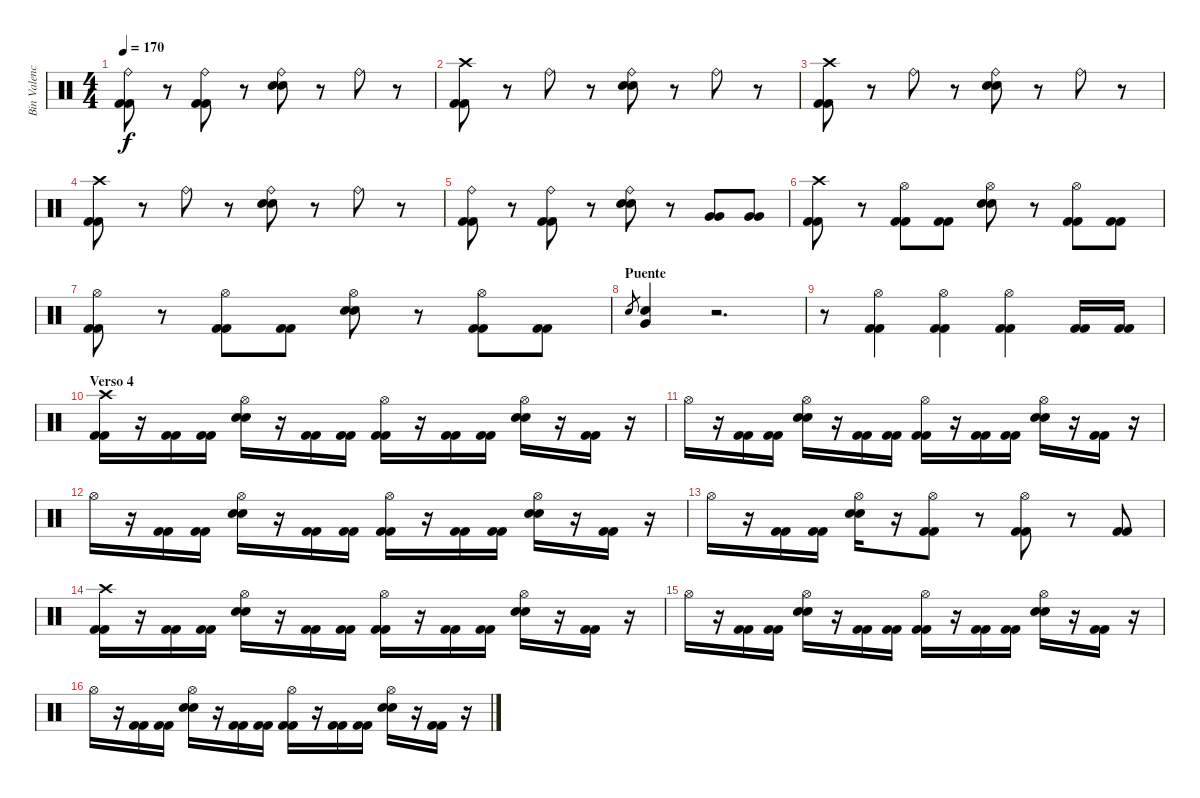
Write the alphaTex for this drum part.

\track ("Bin Valencia (Bateria)" "Bin Valenc") {instrument percussion}
\staff {score}
\articulation defaults
\ts (4 4)
\tempo 170
\clef neutral
\ks c
("Ride (bell)" "Kick (hit) 2" "Kick (hit) 2").8{dy f} r.8 ("Ride (bell)" "Kick (hit) 2" "Kick (hit) 2").8 r.8 ("Ride (bell)" "Snare (hit) 2" "Snare (hit) 2").8 r.8 "Ride (bell)".8 r.8 |
("Crash high (hit)" "Kick (hit) 2" "Kick (hit) 2").8 r.8 "Ride (bell)".8 r.8 ("Ride (bell)" "Snare (hit) 2" "Snare (hit) 2").8 r.8 "Ride (bell)".8 r.8 |
("Crash high (hit)" "Kick (hit) 2" "Kick (hit) 2").8 r.8 "Ride (bell)".8 r.8 ("Ride (bell)" "Snare (hit) 2" "Snare (hit) 2").8 r.8 "Ride (bell)".8 r.8 |
("Crash high (hit)" "Kick (hit) 2" "Kick (hit) 2").8 r.8 "Ride (bell)".8 r.8 ("Ride (bell)" "Snare (hit) 2" "Snare (hit) 2").8 r.8 "Ride (bell)".8 r.8 |
("Ride (bell)" "Kick (hit) 2" "Kick (hit) 2").8 r.8 ("Ride (bell)" "Kick (hit) 2" "Kick (hit) 2").8 r.8 ("Ride (bell)" "Snare (hit) 2" "Snare (hit) 2").8 r.8 ("Very Low Tom (hit)" "Very Low Tom (hit)").8 ("Very Low Tom (hit)" "Very Low Tom (hit)").8 |
("Crash high (hit)" "Kick (hit) 2" "Kick (hit) 2").8 r.8 ("Hi-Hat (open)" "Kick (hit) 2" "Kick (hit) 2").8 ("Kick (hit) 2" "Kick (hit) 2").8 ("Hi-Hat (open)" "Snare (hit) 2" "Snare (hit) 2").8 r.8 ("Hi-Hat (open)" "Kick (hit) 2" "Kick (hit) 2").8 ("Kick (hit) 2" "Kick (hit) 2").8 |
("Hi-Hat (open)" "Kick (hit) 2" "Kick (hit) 2").8 r.8 ("Hi-Hat (open)" "Kick (hit) 2" "Kick (hit) 2").8 ("Kick (hit) 2" "Kick (hit) 2").8 ("Hi-Hat (open)" "Snare (hit) 2" "Snare (hit) 2").8 r.8 ("Hi-Hat (open)" "Kick (hit) 2" "Kick (hit) 2").8 ("Kick (hit) 2" "Kick (hit) 2").8 |
\section ("" "Puente")
"Snare (hit) 2".8{gr} ("Snare (hit) 2" "Very Low Tom (hit)").4 r.2{d} |
r.8 ("Hi-Hat (open)" "Kick (hit) 2" "Kick (hit) 2").4 ("Hi-Hat (open)" "Kick (hit) 2" "Kick (hit) 2").4 ("Hi-Hat (open)" "Kick (hit) 2" "Kick (hit) 2").4 ("Kick (hit) 2" "Kick (hit) 2").16 ("Kick (hit) 2" "Kick (hit) 2").16 |
\section ("" "Verso 4")
("Crash high (hit)" "Kick (hit) 2" "Kick (hit) 2").16 r.16 ("Kick (hit) 2" "Kick (hit) 2").16 ("Kick (hit) 2" "Kick (hit) 2").16 ("Hi-Hat (open)" "Snare (hit) 2" "Snare (hit) 2").16 r.16 ("Kick (hit) 2" "Kick (hit) 2").16 ("Kick (hit) 2" "Kick (hit) 2").16 ("Hi-Hat (open)" "Kick (hit) 2" "Kick (hit) 2").16 r.16 ("Kick (hit) 2" "Kick (hit) 2").16 ("Kick (hit) 2" "Kick (hit) 2").16 ("Hi-Hat (open)" "Snare (hit) 2" "Snare (hit) 2").16 r.16 ("Kick (hit) 2" "Kick (hit) 2").16 r.16 |
"Hi-Hat (open)".16 r.16 ("Kick (hit) 2" "Kick (hit) 2").16 ("Kick (hit) 2" "Kick (hit) 2").16 ("Hi-Hat (open)" "Snare (hit) 2" "Snare (hit) 2").16 r.16 ("Kick (hit) 2" "Kick (hit) 2").16 ("Kick (hit) 2" "Kick (hit) 2").16 ("Hi-Hat (open)" "Kick (hit) 2" "Kick (hit) 2").16 r.16 ("Kick (hit) 2" "Kick (hit) 2").16 ("Kick (hit) 2" "Kick (hit) 2").16 ("Hi-Hat (open)" "Snare (hit) 2" "Snare (hit) 2").16 r.16 ("Kick (hit) 2" "Kick (hit) 2").16 r.16 |
"Hi-Hat (open)".16 r.16 ("Kick (hit) 2" "Kick (hit) 2").16 ("Kick (hit) 2" "Kick (hit) 2").16 ("Hi-Hat (open)" "Snare (hit) 2" "Snare (hit) 2").16 r.16 ("Kick (hit) 2" "Kick (hit) 2").16 ("Kick (hit) 2" "Kick (hit) 2").16 ("Hi-Hat (open)" "Kick (hit) 2" "Kick (hit) 2").16 r.16 ("Kick (hit) 2" "Kick (hit) 2").16 ("Kick (hit) 2" "Kick (hit) 2").16 ("Hi-Hat (open)" "Snare (hit) 2" "Snare (hit) 2").16 r.16 ("Kick (hit) 2" "Kick (hit) 2").16 r.16 |
"Hi-Hat (open)".16 r.16 ("Kick (hit) 2" "Kick (hit) 2").16 ("Kick (hit) 2" "Kick (hit) 2").16 ("Hi-Hat (open)" "Snare (hit) 2" "Snare (hit) 2").16 r.16 ("Hi-Hat (open)" "Kick (hit) 2" "Kick (hit) 2").8 r.8 ("Hi-Hat (open)" "Kick (hit) 2" "Kick (hit) 2").8 r.8 ("Kick (hit) 2" "Kick (hit) 2").8 |
("Crash high (hit)" "Kick (hit) 2" "Kick (hit) 2").16 r.16 ("Kick (hit) 2" "Kick (hit) 2").16 ("Kick (hit) 2" "Kick (hit) 2").16 ("Hi-Hat (open)" "Snare (hit) 2" "Snare (hit) 2").16 r.16 ("Kick (hit) 2" "Kick (hit) 2").16 ("Kick (hit) 2" "Kick (hit) 2").16 ("Hi-Hat (open)" "Kick (hit) 2" "Kick (hit) 2").16 r.16 ("Kick (hit) 2" "Kick (hit) 2").16 ("Kick (hit) 2" "Kick (hit) 2").16 ("Hi-Hat (open)" "Snare (hit) 2" "Snare (hit) 2").16 r.16 ("Kick (hit) 2" "Kick (hit) 2").16 r.16 |
"Hi-Hat (open)".16 r.16 ("Kick (hit) 2" "Kick (hit) 2").16 ("Kick (hit) 2" "Kick (hit) 2").16 ("Hi-Hat (open)" "Snare (hit) 2" "Snare (hit) 2").16 r.16 ("Kick (hit) 2" "Kick (hit) 2").16 ("Kick (hit) 2" "Kick (hit) 2").16 ("Hi-Hat (open)" "Kick (hit) 2" "Kick (hit) 2").16 r.16 ("Kick (hit) 2" "Kick (hit) 2").16 ("Kick (hit) 2" "Kick (hit) 2").16 ("Hi-Hat (open)" "Snare (hit) 2" "Snare (hit) 2").16 r.16 ("Kick (hit) 2" "Kick (hit) 2").16 r.16 |
"Hi-Hat (open)".16 r.16 ("Kick (hit) 2" "Kick (hit) 2").16 ("Kick (hit) 2" "Kick (hit) 2").16 ("Hi-Hat (open)" "Snare (hit) 2" "Snare (hit) 2").16 r.16 ("Kick (hit) 2" "Kick (hit) 2").16 ("Kick (hit) 2" "Kick (hit) 2").16 ("Hi-Hat (open)" "Kick (hit) 2" "Kick (hit) 2").16 r.16 ("Kick (hit) 2" "Kick (hit) 2").16 ("Kick (hit) 2" "Kick (hit) 2").16 ("Hi-Hat (open)" "Snare (hit) 2" "Snare (hit) 2").16 r.16 ("Kick (hit) 2" "Kick (hit) 2").16 r.16
